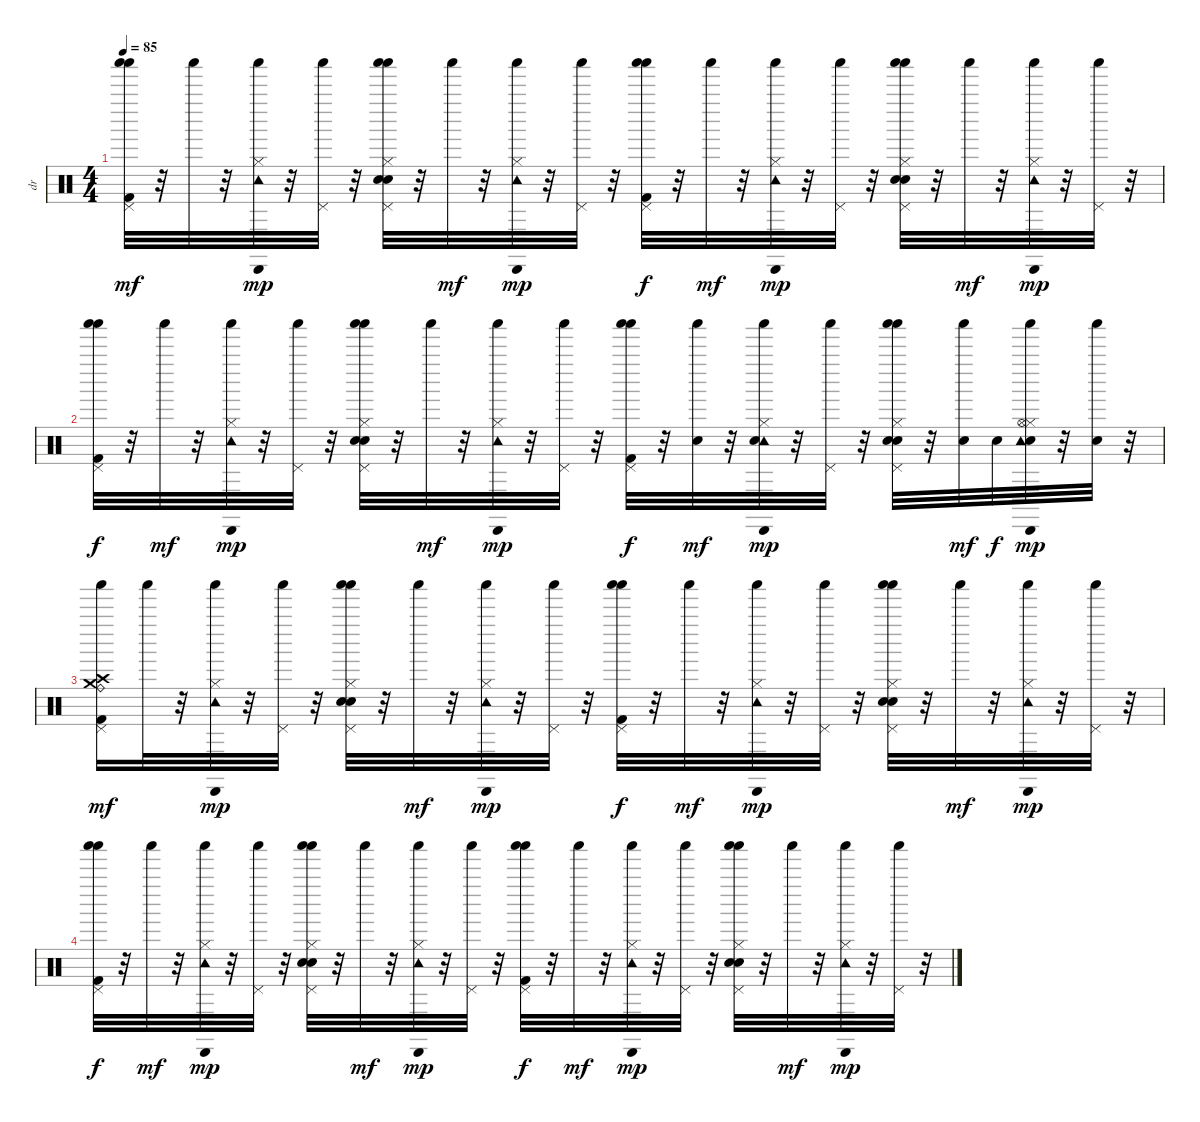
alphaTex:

\track ("dr" "dr") {instrument percussion}
\staff {score}
\articulation defaults
\ts (4 4)
\tempo 85
\clef neutral
\ks c
("Pedal Hi-Hat (hit)" "Shaker (hit)" "Shaker (hit)" "Kick (hit) 2").32{dy mf} r.32 "Shaker (hit)".32 r.32 ("Hi-Hat (closed)" "Cabasa (hit)" "Tambourine (hit)" "Shaker (hit)").32{dy mp} r.32 ("Pedal Hi-Hat (hit)" "Shaker (hit)").32 r.32 ("Electric Snare (hit)" "Pedal Hi-Hat (hit)" "Shaker (hit)" "Shaker (hit)" "Hi-Hat (closed)" "Snare (hit) 2").32 r.32 "Shaker (hit)".32{dy mf} r.32 ("Hi-Hat (closed)" "Tambourine (hit)" "Cabasa (hit)" "Shaker (hit)").32{dy mp} r.32 ("Pedal Hi-Hat (hit)" "Shaker (hit)").32 r.32 ("Pedal Hi-Hat (hit)" "Shaker (hit)" "Shaker (hit)" "Kick (hit) 2").32{dy f} r.32 "Shaker (hit)".32{dy mf} r.32 ("Hi-Hat (closed)" "Cabasa (hit)" "Tambourine (hit)" "Shaker (hit)").32{dy mp} r.32 ("Pedal Hi-Hat (hit)" "Shaker (hit)").32 r.32 ("Electric Snare (hit)" "Pedal Hi-Hat (hit)" "Shaker (hit)" "Shaker (hit)" "Hi-Hat (closed)" "Snare (hit) 2").32 r.32 "Shaker (hit)".32{dy mf} r.32 ("Hi-Hat (closed)" "Cabasa (hit)" "Tambourine (hit)" "Shaker (hit)").32{dy mp} r.32 ("Pedal Hi-Hat (hit)" "Shaker (hit)").32 r.32 |
("Pedal Hi-Hat (hit)" "Shaker (hit)" "Shaker (hit)" "Kick (hit) 2").32{dy f} r.32 "Shaker (hit)".32{dy mf} r.32 ("Hi-Hat (closed)" "Cabasa (hit)" "Tambourine (hit)" "Shaker (hit)").32{dy mp} r.32 ("Pedal Hi-Hat (hit)" "Shaker (hit)").32 r.32 ("Pedal Hi-Hat (hit)" "Shaker (hit)" "Shaker (hit)" "Hi-Hat (closed)" "Electric Snare (hit)" "Snare (hit) 2").32 r.32 "Shaker (hit)".32{dy mf} r.32 ("Hi-Hat (closed)" "Cabasa (hit)" "Tambourine (hit)" "Shaker (hit)").32{dy mp} r.32 ("Pedal Hi-Hat (hit)" "Shaker (hit)").32 r.32 ("Pedal Hi-Hat (hit)" "Shaker (hit)" "Shaker (hit)" "Kick (hit) 2").32{dy f} r.32 ("Shaker (hit)" "Snare (hit) 2").32{dy mf} r.32 ("Hi-Hat (closed)" "Cabasa (hit)" "Tambourine (hit)" "Shaker (hit)" "Snare (hit) 2").32{dy mp} r.32 ("Pedal Hi-Hat (hit)" "Shaker (hit)").32 r.32 ("Electric Snare (hit)" "Pedal Hi-Hat (hit)" "Shaker (hit)" "Shaker (hit)" "Hi-Hat (closed)" "Snare (hit) 2").32 r.32 ("Shaker (hit)" "Snare (hit) 2").32{dy mf} "Snare (hit) 2".32{dy f} ("Snare (hit) 2" "Hi-Hat (closed)" "Cabasa (hit)" "Tambourine (hit)" "Shaker (hit)" "Hi-Hat (open)").32{dy mp} r.32 ("Shaker (hit)" "Snare (hit) 2").32 r.32 |
("Kick (hit) 2" "Crash high (hit)" "Ride (bell)" "Crash medium (hit)" "Pedal Hi-Hat (hit)" "Shaker (hit)").16{dy mf} "Shaker (hit)".32 r.32 ("Hi-Hat (closed)" "Tambourine (hit)" "Cabasa (hit)" "Shaker (hit)").32{dy mp} r.32 ("Pedal Hi-Hat (hit)" "Shaker (hit)").32 r.32 ("Electric Snare (hit)" "Pedal Hi-Hat (hit)" "Shaker (hit)" "Shaker (hit)" "Hi-Hat (closed)" "Snare (hit) 2").32 r.32 "Shaker (hit)".32{dy mf} r.32 ("Hi-Hat (closed)" "Tambourine (hit)" "Cabasa (hit)" "Shaker (hit)").32{dy mp} r.32 ("Pedal Hi-Hat (hit)" "Shaker (hit)").32 r.32 ("Pedal Hi-Hat (hit)" "Shaker (hit)" "Shaker (hit)" "Kick (hit) 2").32{dy f} r.32 "Shaker (hit)".32{dy mf} r.32 ("Hi-Hat (closed)" "Tambourine (hit)" "Cabasa (hit)" "Shaker (hit)").32{dy mp} r.32 ("Pedal Hi-Hat (hit)" "Shaker (hit)").32 r.32 ("Electric Snare (hit)" "Pedal Hi-Hat (hit)" "Shaker (hit)" "Shaker (hit)" "Hi-Hat (closed)" "Snare (hit) 2").32 r.32 "Shaker (hit)".32{dy mf} r.32 ("Hi-Hat (closed)" "Tambourine (hit)" "Cabasa (hit)" "Shaker (hit)").32{dy mp} r.32 ("Pedal Hi-Hat (hit)" "Shaker (hit)").32 r.32 |
("Pedal Hi-Hat (hit)" "Shaker (hit)" "Shaker (hit)" "Kick (hit) 2").32{dy f} r.32 "Shaker (hit)".32{dy mf} r.32 ("Hi-Hat (closed)" "Tambourine (hit)" "Cabasa (hit)" "Shaker (hit)").32{dy mp} r.32 ("Pedal Hi-Hat (hit)" "Shaker (hit)").32 r.32 ("Electric Snare (hit)" "Pedal Hi-Hat (hit)" "Shaker (hit)" "Shaker (hit)" "Hi-Hat (closed)" "Snare (hit) 2").32 r.32 "Shaker (hit)".32{dy mf} r.32 ("Hi-Hat (closed)" "Tambourine (hit)" "Cabasa (hit)" "Shaker (hit)").32{dy mp} r.32 ("Pedal Hi-Hat (hit)" "Shaker (hit)").32 r.32 ("Pedal Hi-Hat (hit)" "Shaker (hit)" "Shaker (hit)" "Kick (hit) 2").32{dy f} r.32 "Shaker (hit)".32{dy mf} r.32 ("Hi-Hat (closed)" "Tambourine (hit)" "Cabasa (hit)" "Shaker (hit)").32{dy mp} r.32 ("Pedal Hi-Hat (hit)" "Shaker (hit)").32 r.32 ("Electric Snare (hit)" "Pedal Hi-Hat (hit)" "Shaker (hit)" "Shaker (hit)" "Hi-Hat (closed)" "Snare (hit) 2").32 r.32 "Shaker (hit)".32{dy mf} r.32 ("Hi-Hat (closed)" "Tambourine (hit)" "Cabasa (hit)" "Shaker (hit)").32{dy mp} r.32 ("Pedal Hi-Hat (hit)" "Shaker (hit)").32 r.32
